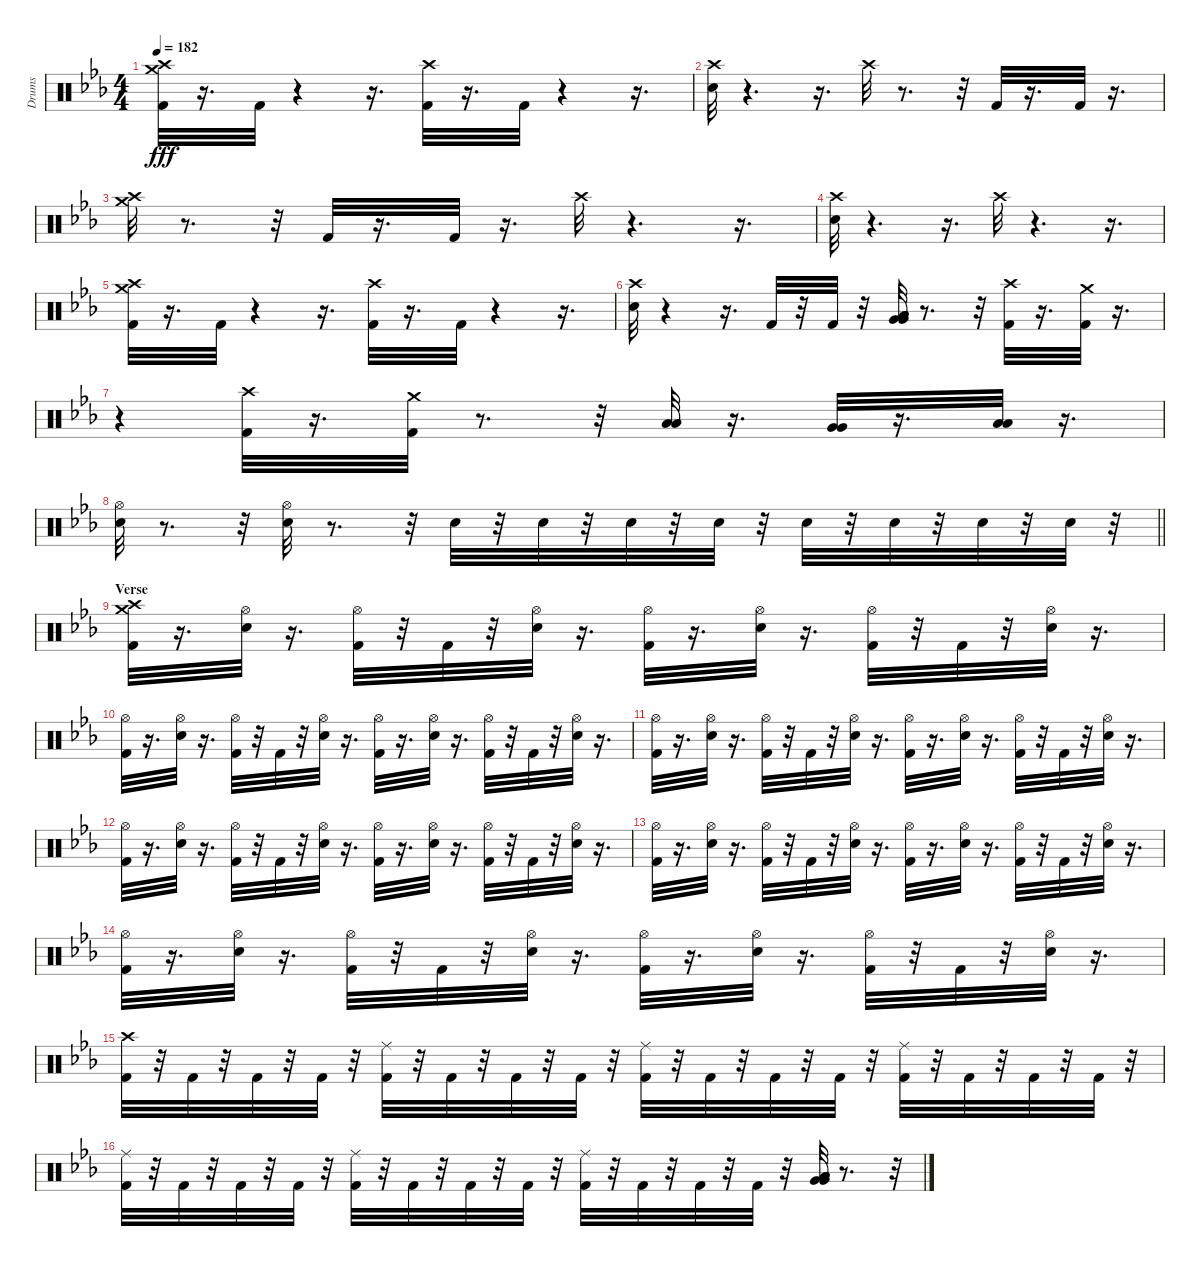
\track ("Drums" "Drums") {instrument percussion}
\staff {score}
\articulation defaults
\ts (4 4)
\tempo 182
\clef neutral
\ks cminor
("Crash medium (hit)" "Crash high (hit)" "Kick (hit) 2").32{dy fff} r.16{d} "Kick (hit) 2".32 r.4 r.16{d} ("Kick (hit) 2" "Crash high (hit)").32 r.16{d} "Kick (hit) 2".32 r.4 r.16{d} |
("Snare (hit) 2" "Crash high (hit)").32 r.4{d} r.16{d} "Crash high (hit)".32 r.8{d} r.32 "Kick (hit) 2".32 r.16{d} "Kick (hit) 2".32 r.16{d} |
("Crash medium (hit)" "Crash high (hit)").32 r.8{d} r.32 "Kick (hit) 2".32 r.16{d} "Kick (hit) 2".32 r.16{d} "Crash high (hit)".32 r.4{d} r.16{d} |
("Snare (hit) 2" "Crash high (hit)").32 r.4{d} r.16{d} "Crash high (hit)".32 r.4{d} r.16{d} |
("Crash medium (hit)" "Crash high (hit)" "Kick (hit) 2").32 r.16{d} "Kick (hit) 2".32 r.4 r.16{d} ("Kick (hit) 2" "Crash high (hit)").32 r.16{d} "Kick (hit) 2".32 r.4 r.16{d} |
("Snare (hit) 2" "Crash high (hit)").32 r.4 r.16{d} "Kick (hit) 2".32 r.32 "Kick (hit) 2".32 r.32 ("Low Floor Tom (hit)" "Very Low Tom (hit)" "Very Low Tom (hit)" "Low Floor Tom (hit)").32 r.8{d} r.32 ("Kick (hit) 2" "Crash high (hit)").32 r.16{d} ("Crash medium (hit)" "Kick (hit) 2").32 r.16{d} |
r.4 ("Kick (hit) 2" "Crash high (hit)").32 r.16{d} ("Crash medium (hit)" "Kick (hit) 2").32 r.8{d} r.32 ("Low Tom (hit)" "Low Tom (hit)").32 r.16{d} ("Very Low Tom (hit)" "Very Low Tom (hit)").32 r.16{d} ("Low Floor Tom (hit)" "Low Floor Tom (hit)").32 r.16{d} |
\barLineRight lightlight
("Hi-Hat (open)" "Snare (hit) 2").32 r.8{d} r.32 ("Hi-Hat (open)" "Snare (hit) 2").32 r.8{d} r.32 "Snare (hit) 2".32 r.32 "Snare (hit) 2".32 r.32 "Snare (hit) 2".32 r.32 "Snare (hit) 2".32 r.32 "Snare (hit) 2".32 r.32 "Snare (hit) 2".32 r.32 "Snare (hit) 2".32 r.32 "Snare (hit) 2".32 r.32 |
\section ("" "Verse")
("Crash medium (hit)" "Crash high (hit)" "Kick (hit) 2").32 r.16{d} ("Hi-Hat (open)" "Snare (hit) 2").32 r.16{d} ("Hi-Hat (open)" "Kick (hit) 2").32 r.32 "Kick (hit) 2".32 r.32 ("Hi-Hat (open)" "Snare (hit) 2").32 r.16{d} ("Hi-Hat (open)" "Kick (hit) 2").32 r.16{d} ("Hi-Hat (open)" "Snare (hit) 2").32 r.16{d} ("Hi-Hat (open)" "Kick (hit) 2").32 r.32 "Kick (hit) 2".32 r.32 ("Hi-Hat (open)" "Snare (hit) 2").32 r.16{d} |
("Hi-Hat (open)" "Kick (hit) 2").32 r.16{d} ("Hi-Hat (open)" "Snare (hit) 2").32 r.16{d} ("Hi-Hat (open)" "Kick (hit) 2").32 r.32 "Kick (hit) 2".32 r.32 ("Hi-Hat (open)" "Snare (hit) 2").32 r.16{d} ("Hi-Hat (open)" "Kick (hit) 2").32 r.16{d} ("Hi-Hat (open)" "Snare (hit) 2").32 r.16{d} ("Hi-Hat (open)" "Kick (hit) 2").32 r.32 "Kick (hit) 2".32 r.32 ("Hi-Hat (open)" "Snare (hit) 2").32 r.16{d} |
("Hi-Hat (open)" "Kick (hit) 2").32 r.16{d} ("Hi-Hat (open)" "Snare (hit) 2").32 r.16{d} ("Hi-Hat (open)" "Kick (hit) 2").32 r.32 "Kick (hit) 2".32 r.32 ("Hi-Hat (open)" "Snare (hit) 2").32 r.16{d} ("Hi-Hat (open)" "Kick (hit) 2").32 r.16{d} ("Hi-Hat (open)" "Snare (hit) 2").32 r.16{d} ("Hi-Hat (open)" "Kick (hit) 2").32 r.32 "Kick (hit) 2".32 r.32 ("Hi-Hat (open)" "Snare (hit) 2").32 r.16{d} |
("Hi-Hat (open)" "Kick (hit) 2").32 r.16{d} ("Hi-Hat (open)" "Snare (hit) 2").32 r.16{d} ("Hi-Hat (open)" "Kick (hit) 2").32 r.32 "Kick (hit) 2".32 r.32 ("Hi-Hat (open)" "Snare (hit) 2").32 r.16{d} ("Hi-Hat (open)" "Kick (hit) 2").32 r.16{d} ("Hi-Hat (open)" "Snare (hit) 2").32 r.16{d} ("Hi-Hat (open)" "Kick (hit) 2").32 r.32 "Kick (hit) 2".32 r.32 ("Hi-Hat (open)" "Snare (hit) 2").32 r.16{d} |
("Hi-Hat (open)" "Kick (hit) 2").32 r.16{d} ("Hi-Hat (open)" "Snare (hit) 2").32 r.16{d} ("Hi-Hat (open)" "Kick (hit) 2").32 r.32 "Kick (hit) 2".32 r.32 ("Hi-Hat (open)" "Snare (hit) 2").32 r.16{d} ("Hi-Hat (open)" "Kick (hit) 2").32 r.16{d} ("Hi-Hat (open)" "Snare (hit) 2").32 r.16{d} ("Hi-Hat (open)" "Kick (hit) 2").32 r.32 "Kick (hit) 2".32 r.32 ("Hi-Hat (open)" "Snare (hit) 2").32 r.16{d} |
("Hi-Hat (open)" "Kick (hit) 2").32 r.16{d} ("Hi-Hat (open)" "Snare (hit) 2").32 r.16{d} ("Hi-Hat (open)" "Kick (hit) 2").32 r.32 "Kick (hit) 2".32 r.32 ("Hi-Hat (open)" "Snare (hit) 2").32 r.16{d} ("Hi-Hat (open)" "Kick (hit) 2").32 r.16{d} ("Hi-Hat (open)" "Snare (hit) 2").32 r.16{d} ("Hi-Hat (open)" "Kick (hit) 2").32 r.32 "Kick (hit) 2".32 r.32 ("Hi-Hat (open)" "Snare (hit) 2").32 r.16{d} |
("Crash high (hit)" "Kick (hit) 2").32 r.32 "Kick (hit) 2".32 r.32 "Kick (hit) 2".32 r.32 "Kick (hit) 2".32 r.32 ("Ride (middle)" "Kick (hit) 2").32 r.32 "Kick (hit) 2".32 r.32 "Kick (hit) 2".32 r.32 "Kick (hit) 2".32 r.32 ("Ride (middle)" "Kick (hit) 2").32 r.32 "Kick (hit) 2".32 r.32 "Kick (hit) 2".32 r.32 "Kick (hit) 2".32 r.32 ("Ride (middle)" "Kick (hit) 2").32 r.32 "Kick (hit) 2".32 r.32 "Kick (hit) 2".32 r.32 "Kick (hit) 2".32 r.32 |
("Ride (middle)" "Kick (hit) 2").32 r.32 "Kick (hit) 2".32 r.32 "Kick (hit) 2".32 r.32 "Kick (hit) 2".32 r.32 ("Ride (middle)" "Kick (hit) 2").32 r.32 "Kick (hit) 2".32 r.32 "Kick (hit) 2".32 r.32 "Kick (hit) 2".32 r.32 ("Ride (middle)" "Kick (hit) 2").32 r.32 "Kick (hit) 2".32 r.32 "Kick (hit) 2".32 r.32 "Kick (hit) 2".32 r.32 ("Very Low Tom (hit)" "Low Floor Tom (hit)" "Very Low Tom (hit)" "Low Floor Tom (hit)").32 r.8{d} r.32
